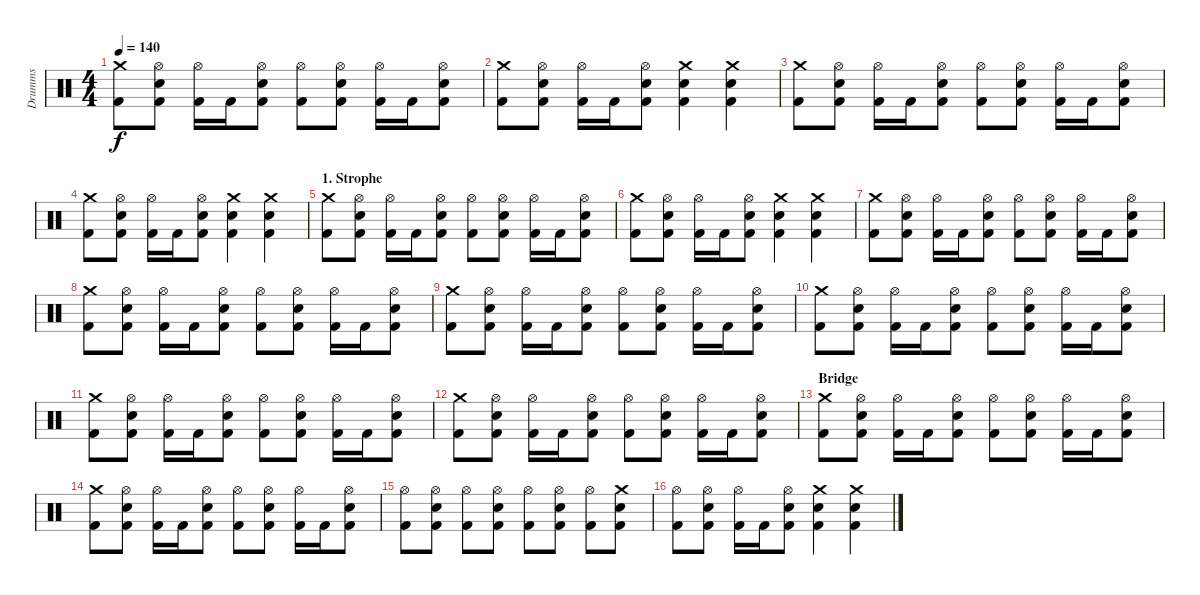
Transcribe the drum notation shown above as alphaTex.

\track ("Drumms" "Drumms") {instrument percussion}
\staff {score}
\articulation defaults
\ts (4 4)
\tempo 140
\clef neutral
\ks c
("Crash medium (hit)" "Kick (hit) 2").8{dy f} ("Hi-Hat (open)" "Electric Snare (hit)" "Kick (hit) 2").8 ("Hi-Hat (open)" "Kick (hit) 2").16 "Kick (hit) 2".16 ("Hi-Hat (open)" "Electric Snare (hit)" "Kick (hit) 2").8 ("Hi-Hat (open)" "Kick (hit) 2").8 ("Hi-Hat (open)" "Electric Snare (hit)" "Kick (hit) 2").8 ("Hi-Hat (open)" "Kick (hit) 2").16 "Kick (hit) 2".16 ("Hi-Hat (open)" "Electric Snare (hit)" "Kick (hit) 2").8 |
("Crash medium (hit)" "Kick (hit) 2").8 ("Hi-Hat (open)" "Electric Snare (hit)" "Kick (hit) 2").8 ("Hi-Hat (open)" "Kick (hit) 2").16 "Kick (hit) 2".16 ("Hi-Hat (open)" "Electric Snare (hit)" "Kick (hit) 2").8 ("Crash medium (hit)" "Electric Snare (hit)" "Kick (hit) 2").4 ("Crash medium (hit)" "Electric Snare (hit)" "Kick (hit) 2").4 |
("Crash medium (hit)" "Kick (hit) 2").8 ("Hi-Hat (open)" "Electric Snare (hit)" "Kick (hit) 2").8 ("Hi-Hat (open)" "Kick (hit) 2").16 "Kick (hit) 2".16 ("Hi-Hat (open)" "Electric Snare (hit)" "Kick (hit) 2").8 ("Hi-Hat (open)" "Kick (hit) 2").8 ("Hi-Hat (open)" "Electric Snare (hit)" "Kick (hit) 2").8 ("Hi-Hat (open)" "Kick (hit) 2").16 "Kick (hit) 2".16 ("Hi-Hat (open)" "Electric Snare (hit)" "Kick (hit) 2").8 |
("Crash medium (hit)" "Kick (hit) 2").8 ("Hi-Hat (open)" "Electric Snare (hit)" "Kick (hit) 2").8 ("Hi-Hat (open)" "Kick (hit) 2").16 "Kick (hit) 2".16 ("Hi-Hat (open)" "Electric Snare (hit)" "Kick (hit) 2").8 ("Crash medium (hit)" "Electric Snare (hit)" "Kick (hit) 2").4 ("Crash medium (hit)" "Electric Snare (hit)" "Kick (hit) 2").4 |
\section ("" "1. Strophe")
("Crash medium (hit)" "Kick (hit) 2").8 ("Hi-Hat (open)" "Electric Snare (hit)" "Kick (hit) 2").8 ("Hi-Hat (open)" "Kick (hit) 2").16 "Kick (hit) 2".16 ("Hi-Hat (open)" "Electric Snare (hit)" "Kick (hit) 2").8 ("Hi-Hat (open)" "Kick (hit) 2").8 ("Hi-Hat (open)" "Electric Snare (hit)" "Kick (hit) 2").8 ("Hi-Hat (open)" "Kick (hit) 2").16 "Kick (hit) 2".16 ("Hi-Hat (open)" "Electric Snare (hit)" "Kick (hit) 2").8 |
("Crash medium (hit)" "Kick (hit) 2").8 ("Hi-Hat (open)" "Electric Snare (hit)" "Kick (hit) 2").8 ("Hi-Hat (open)" "Kick (hit) 2").16 "Kick (hit) 2".16 ("Hi-Hat (open)" "Electric Snare (hit)" "Kick (hit) 2").8 ("Crash medium (hit)" "Electric Snare (hit)" "Kick (hit) 2").4 ("Crash medium (hit)" "Electric Snare (hit)" "Kick (hit) 2").4 |
("Crash medium (hit)" "Kick (hit) 2").8 ("Hi-Hat (open)" "Electric Snare (hit)" "Kick (hit) 2").8 ("Hi-Hat (open)" "Kick (hit) 2").16 "Kick (hit) 2".16 ("Hi-Hat (open)" "Electric Snare (hit)" "Kick (hit) 2").8 ("Hi-Hat (open)" "Kick (hit) 2").8 ("Hi-Hat (open)" "Electric Snare (hit)" "Kick (hit) 2").8 ("Hi-Hat (open)" "Kick (hit) 2").16 "Kick (hit) 2".16 ("Hi-Hat (open)" "Electric Snare (hit)" "Kick (hit) 2").8 |
("Crash medium (hit)" "Kick (hit) 2").8 ("Hi-Hat (open)" "Electric Snare (hit)" "Kick (hit) 2").8 ("Hi-Hat (open)" "Kick (hit) 2").16 "Kick (hit) 2".16 ("Hi-Hat (open)" "Electric Snare (hit)" "Kick (hit) 2").8 ("Hi-Hat (open)" "Kick (hit) 2").8 ("Hi-Hat (open)" "Electric Snare (hit)" "Kick (hit) 2").8 ("Hi-Hat (open)" "Kick (hit) 2").16 "Kick (hit) 2".16 ("Hi-Hat (open)" "Electric Snare (hit)" "Kick (hit) 2").8 |
("Crash medium (hit)" "Kick (hit) 2").8 ("Hi-Hat (open)" "Electric Snare (hit)" "Kick (hit) 2").8 ("Hi-Hat (open)" "Kick (hit) 2").16 "Kick (hit) 2".16 ("Hi-Hat (open)" "Electric Snare (hit)" "Kick (hit) 2").8 ("Hi-Hat (open)" "Kick (hit) 2").8 ("Hi-Hat (open)" "Electric Snare (hit)" "Kick (hit) 2").8 ("Hi-Hat (open)" "Kick (hit) 2").16 "Kick (hit) 2".16 ("Hi-Hat (open)" "Electric Snare (hit)" "Kick (hit) 2").8 |
("Crash medium (hit)" "Kick (hit) 2").8 ("Hi-Hat (open)" "Electric Snare (hit)" "Kick (hit) 2").8 ("Hi-Hat (open)" "Kick (hit) 2").16 "Kick (hit) 2".16 ("Hi-Hat (open)" "Electric Snare (hit)" "Kick (hit) 2").8 ("Hi-Hat (open)" "Kick (hit) 2").8 ("Hi-Hat (open)" "Electric Snare (hit)" "Kick (hit) 2").8 ("Hi-Hat (open)" "Kick (hit) 2").16 "Kick (hit) 2".16 ("Hi-Hat (open)" "Electric Snare (hit)" "Kick (hit) 2").8 |
("Crash medium (hit)" "Kick (hit) 2").8 ("Hi-Hat (open)" "Electric Snare (hit)" "Kick (hit) 2").8 ("Hi-Hat (open)" "Kick (hit) 2").16 "Kick (hit) 2".16 ("Hi-Hat (open)" "Electric Snare (hit)" "Kick (hit) 2").8 ("Hi-Hat (open)" "Kick (hit) 2").8 ("Hi-Hat (open)" "Electric Snare (hit)" "Kick (hit) 2").8 ("Hi-Hat (open)" "Kick (hit) 2").16 "Kick (hit) 2".16 ("Hi-Hat (open)" "Electric Snare (hit)" "Kick (hit) 2").8 |
("Crash medium (hit)" "Kick (hit) 2").8 ("Hi-Hat (open)" "Electric Snare (hit)" "Kick (hit) 2").8 ("Hi-Hat (open)" "Kick (hit) 2").16 "Kick (hit) 2".16 ("Hi-Hat (open)" "Electric Snare (hit)" "Kick (hit) 2").8 ("Hi-Hat (open)" "Kick (hit) 2").8 ("Hi-Hat (open)" "Electric Snare (hit)" "Kick (hit) 2").8 ("Hi-Hat (open)" "Kick (hit) 2").16 "Kick (hit) 2".16 ("Hi-Hat (open)" "Electric Snare (hit)" "Kick (hit) 2").8 |
\section ("" "Bridge")
("Crash medium (hit)" "Kick (hit) 2").8 ("Hi-Hat (open)" "Electric Snare (hit)" "Kick (hit) 2").8 ("Hi-Hat (open)" "Kick (hit) 2").16 "Kick (hit) 2".16 ("Hi-Hat (open)" "Electric Snare (hit)" "Kick (hit) 2").8 ("Hi-Hat (open)" "Kick (hit) 2").8 ("Hi-Hat (open)" "Electric Snare (hit)" "Kick (hit) 2").8 ("Hi-Hat (open)" "Kick (hit) 2").16 "Kick (hit) 2".16 ("Hi-Hat (open)" "Electric Snare (hit)" "Kick (hit) 2").8 |
("Crash medium (hit)" "Kick (hit) 2").8 ("Hi-Hat (open)" "Electric Snare (hit)" "Kick (hit) 2").8 ("Hi-Hat (open)" "Kick (hit) 2").16 "Kick (hit) 2".16 ("Hi-Hat (open)" "Electric Snare (hit)" "Kick (hit) 2").8 ("Hi-Hat (open)" "Kick (hit) 2").8 ("Hi-Hat (open)" "Electric Snare (hit)" "Kick (hit) 2").8 ("Hi-Hat (open)" "Kick (hit) 2").16 "Kick (hit) 2".16 ("Hi-Hat (open)" "Electric Snare (hit)" "Kick (hit) 2").8 |
("Hi-Hat (open)" "Kick (hit) 2").8 ("Hi-Hat (open)" "Electric Snare (hit)" "Kick (hit) 2").8 ("Hi-Hat (open)" "Kick (hit) 2").8 ("Hi-Hat (open)" "Electric Snare (hit)" "Kick (hit) 2").8 ("Hi-Hat (open)" "Kick (hit) 2").8 ("Hi-Hat (open)" "Electric Snare (hit)" "Kick (hit) 2").8 ("Hi-Hat (open)" "Kick (hit) 2").8 ("Crash medium (hit)" "Electric Snare (hit)" "Kick (hit) 2").8 |
("Hi-Hat (open)" "Kick (hit) 2").8 ("Hi-Hat (open)" "Electric Snare (hit)" "Kick (hit) 2").8 ("Hi-Hat (open)" "Kick (hit) 2").16 "Kick (hit) 2".16 ("Hi-Hat (open)" "Electric Snare (hit)" "Kick (hit) 2").8 ("Crash medium (hit)" "Electric Snare (hit)" "Kick (hit) 2").4 ("Crash medium (hit)" "Electric Snare (hit)" "Kick (hit) 2").4
